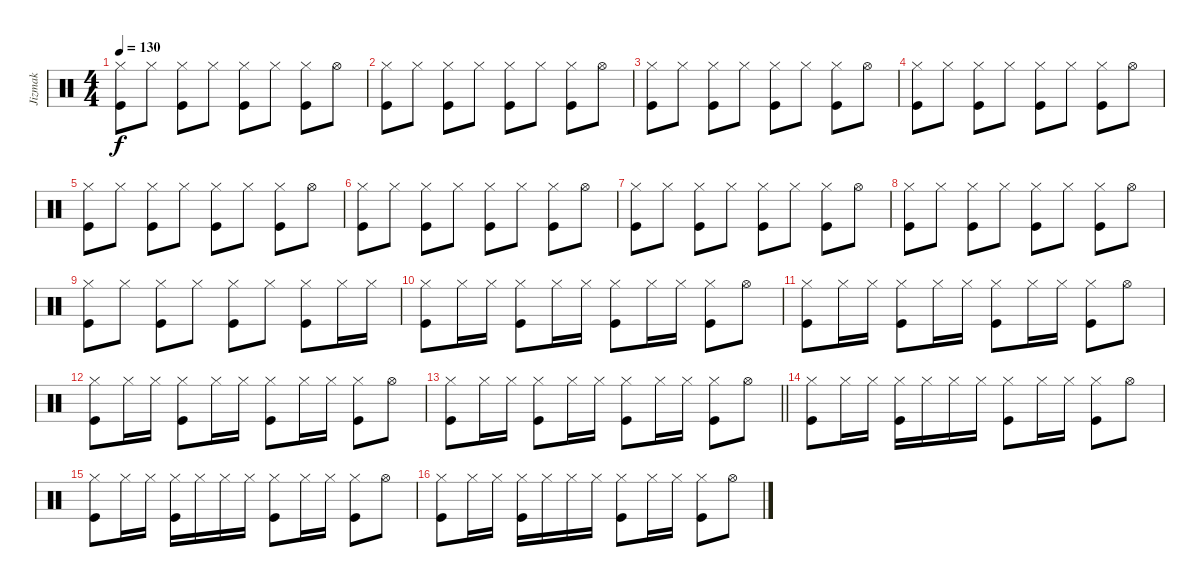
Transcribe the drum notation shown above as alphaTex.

\track ("Jizmak" "Jizmak") {instrument percussion}
\staff {score}
\articulation defaults
\ts (4 4)
\tempo 130
\clef neutral
\ks c
("Hi-Hat (closed)" "Kick (hit)").8{dy f} "Hi-Hat (closed)".8 ("Hi-Hat (closed)" "Kick (hit)").8 "Hi-Hat (closed)".8 ("Hi-Hat (closed)" "Kick (hit)").8 "Hi-Hat (closed)".8 ("Hi-Hat (closed)" "Kick (hit)").8 "Hi-Hat (open)".8 |
("Hi-Hat (closed)" "Kick (hit)").8 "Hi-Hat (closed)".8 ("Hi-Hat (closed)" "Kick (hit)").8 "Hi-Hat (closed)".8 ("Hi-Hat (closed)" "Kick (hit)").8 "Hi-Hat (closed)".8 ("Hi-Hat (closed)" "Kick (hit)").8 "Hi-Hat (open)".8 |
("Hi-Hat (closed)" "Kick (hit)").8 "Hi-Hat (closed)".8 ("Hi-Hat (closed)" "Kick (hit)").8 "Hi-Hat (closed)".8 ("Hi-Hat (closed)" "Kick (hit)").8 "Hi-Hat (closed)".8 ("Hi-Hat (closed)" "Kick (hit)").8 "Hi-Hat (open)".8 |
("Hi-Hat (closed)" "Kick (hit)").8 "Hi-Hat (closed)".8 ("Hi-Hat (closed)" "Kick (hit)").8 "Hi-Hat (closed)".8 ("Hi-Hat (closed)" "Kick (hit)").8 "Hi-Hat (closed)".8 ("Hi-Hat (closed)" "Kick (hit)").8 "Hi-Hat (open)".8 |
("Hi-Hat (closed)" "Kick (hit)").8 "Hi-Hat (closed)".8 ("Hi-Hat (closed)" "Kick (hit)").8 "Hi-Hat (closed)".8 ("Hi-Hat (closed)" "Kick (hit)").8 "Hi-Hat (closed)".8 ("Hi-Hat (closed)" "Kick (hit)").8 "Hi-Hat (open)".8 |
("Hi-Hat (closed)" "Kick (hit)").8 "Hi-Hat (closed)".8 ("Hi-Hat (closed)" "Kick (hit)").8 "Hi-Hat (closed)".8 ("Hi-Hat (closed)" "Kick (hit)").8 "Hi-Hat (closed)".8 ("Hi-Hat (closed)" "Kick (hit)").8 "Hi-Hat (open)".8 |
("Hi-Hat (closed)" "Kick (hit)").8 "Hi-Hat (closed)".8 ("Hi-Hat (closed)" "Kick (hit)").8 "Hi-Hat (closed)".8 ("Hi-Hat (closed)" "Kick (hit)").8 "Hi-Hat (closed)".8 ("Hi-Hat (closed)" "Kick (hit)").8 "Hi-Hat (open)".8 |
("Hi-Hat (closed)" "Kick (hit)").8 "Hi-Hat (closed)".8 ("Hi-Hat (closed)" "Kick (hit)").8 "Hi-Hat (closed)".8 ("Hi-Hat (closed)" "Kick (hit)").8 "Hi-Hat (closed)".8 ("Hi-Hat (closed)" "Kick (hit)").8 "Hi-Hat (open)".8 |
("Hi-Hat (closed)" "Kick (hit)").8 "Hi-Hat (closed)".8 ("Hi-Hat (closed)" "Kick (hit)").8 "Hi-Hat (closed)".8 ("Hi-Hat (closed)" "Kick (hit)").8 "Hi-Hat (closed)".8 ("Hi-Hat (closed)" "Kick (hit)").8 "Hi-Hat (closed)".16 "Hi-Hat (closed)".16 |
("Hi-Hat (closed)" "Kick (hit)").8 "Hi-Hat (closed)".16 "Hi-Hat (closed)".16 ("Hi-Hat (closed)" "Kick (hit)").8 "Hi-Hat (closed)".16 "Hi-Hat (closed)".16 ("Hi-Hat (closed)" "Kick (hit)").8 "Hi-Hat (closed)".16 "Hi-Hat (closed)".16 ("Hi-Hat (closed)" "Kick (hit)").8 "Hi-Hat (open)".8 |
("Hi-Hat (closed)" "Kick (hit)").8 "Hi-Hat (closed)".16 "Hi-Hat (closed)".16 ("Hi-Hat (closed)" "Kick (hit)").8 "Hi-Hat (closed)".16 "Hi-Hat (closed)".16 ("Hi-Hat (closed)" "Kick (hit)").8 "Hi-Hat (closed)".16 "Hi-Hat (closed)".16 ("Hi-Hat (closed)" "Kick (hit)").8 "Hi-Hat (open)".8 |
("Hi-Hat (closed)" "Kick (hit)").8 "Hi-Hat (closed)".16 "Hi-Hat (closed)".16 ("Hi-Hat (closed)" "Kick (hit)").8 "Hi-Hat (closed)".16 "Hi-Hat (closed)".16 ("Hi-Hat (closed)" "Kick (hit)").8 "Hi-Hat (closed)".16 "Hi-Hat (closed)".16 ("Hi-Hat (closed)" "Kick (hit)").8 "Hi-Hat (open)".8 |
\barLineRight lightlight
("Hi-Hat (closed)" "Kick (hit)").8 "Hi-Hat (closed)".16 "Hi-Hat (closed)".16 ("Hi-Hat (closed)" "Kick (hit)").8 "Hi-Hat (closed)".16 "Hi-Hat (closed)".16 ("Hi-Hat (closed)" "Kick (hit)").8 "Hi-Hat (closed)".16 "Hi-Hat (closed)".16 ("Hi-Hat (closed)" "Kick (hit)").8 "Hi-Hat (open)".8 |
("Hi-Hat (closed)" "Kick (hit)").8 "Hi-Hat (closed)".16 "Hi-Hat (closed)".16 ("Hi-Hat (closed)" "Kick (hit)").16 "Hi-Hat (closed)".16 "Hi-Hat (closed)".16 "Hi-Hat (closed)".16 ("Hi-Hat (closed)" "Kick (hit)").8 "Hi-Hat (closed)".16 "Hi-Hat (closed)".16 ("Hi-Hat (closed)" "Kick (hit)").8 "Hi-Hat (open)".8 |
("Hi-Hat (closed)" "Kick (hit)").8 "Hi-Hat (closed)".16 "Hi-Hat (closed)".16 ("Hi-Hat (closed)" "Kick (hit)").16 "Hi-Hat (closed)".16 "Hi-Hat (closed)".16 "Hi-Hat (closed)".16 ("Hi-Hat (closed)" "Kick (hit)").8 "Hi-Hat (closed)".16 "Hi-Hat (closed)".16 ("Hi-Hat (closed)" "Kick (hit)").8 "Hi-Hat (open)".8 |
("Hi-Hat (closed)" "Kick (hit)").8 "Hi-Hat (closed)".16 "Hi-Hat (closed)".16 ("Hi-Hat (closed)" "Kick (hit)").16 "Hi-Hat (closed)".16 "Hi-Hat (closed)".16 "Hi-Hat (closed)".16 ("Hi-Hat (closed)" "Kick (hit)").8 "Hi-Hat (closed)".16 "Hi-Hat (closed)".16 ("Hi-Hat (closed)" "Kick (hit)").8 "Hi-Hat (open)".8
